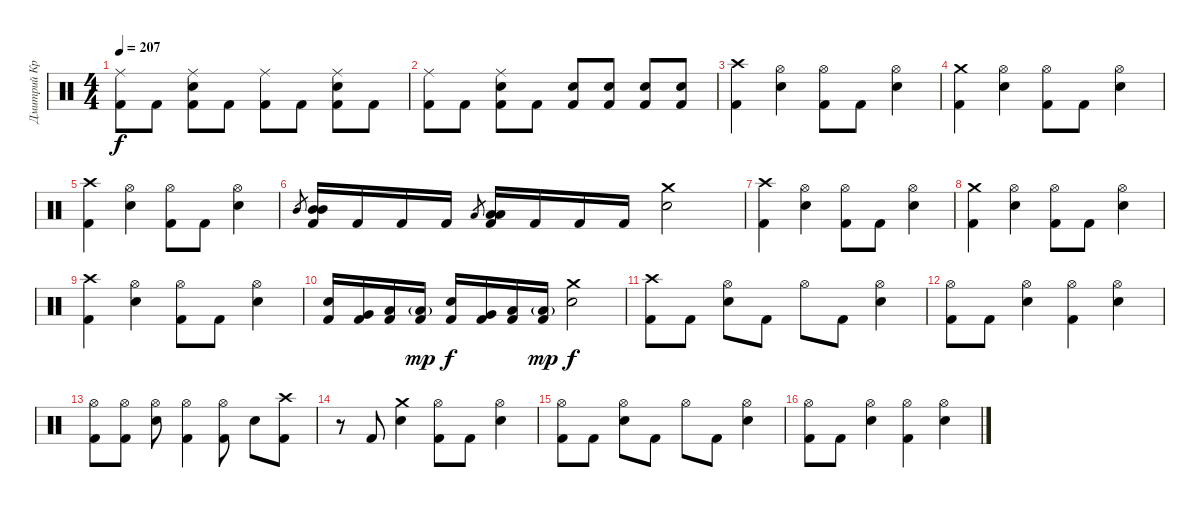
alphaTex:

\track ("Дмитрий Кривенков" "Дмитрий Кр") {instrument percussion}
\staff {score}
\articulation defaults
\ts (4 4)
\tempo 207
\clef neutral
\ks c
("Ride (middle)" "Kick (hit) 2").8{dy f} "Kick (hit) 2".8 ("Ride (middle)" "Electric Snare (hit)" "Kick (hit) 2").8 "Kick (hit) 2".8 ("Ride (middle)" "Kick (hit) 2").8 "Kick (hit) 2".8 ("Ride (middle)" "Electric Snare (hit)" "Kick (hit) 2").8 "Kick (hit) 2".8 |
("Ride (middle)" "Kick (hit) 2").8 "Kick (hit) 2".8 ("Ride (middle)" "Electric Snare (hit)" "Kick (hit) 2").8 "Kick (hit) 2".8 ("Electric Snare (hit)" "Kick (hit) 2").8 ("Electric Snare (hit)" "Kick (hit) 2").8 ("Electric Snare (hit)" "Kick (hit) 2").8 ("Electric Snare (hit)" "Kick (hit) 2").8 |
("Crash high (hit)" "Kick (hit) 2").4 ("Hi-Hat (open)" "Electric Snare (hit)").4 ("Hi-Hat (open)" "Kick (hit) 2").8 "Kick (hit) 2".8 ("Hi-Hat (open)" "Electric Snare (hit)").4 |
("Crash medium (hit)" "Kick (hit) 2").4 ("Hi-Hat (open)" "Electric Snare (hit)").4 ("Hi-Hat (open)" "Kick (hit) 2").8 "Kick (hit) 2".8 ("Hi-Hat (open)" "Electric Snare (hit)").4 |
("Crash high (hit)" "Kick (hit) 2").4 ("Hi-Hat (open)" "Electric Snare (hit)").4 ("Hi-Hat (open)" "Kick (hit) 2").8 "Kick (hit) 2".8 ("Hi-Hat (open)" "Electric Snare (hit)").4 |
"Mid Tom (hit)".8{gr} ("Mid Tom (hit)" "Mid Tom (hit)" "Kick (hit) 2").16 "Kick (hit) 2".16 "Kick (hit) 2".16 "Kick (hit) 2".16 "Low Tom (hit)".8{gr} ("Low Tom (hit)" "Low Tom (hit)" "Kick (hit) 2").16 "Kick (hit) 2".16 "Kick (hit) 2".16 "Kick (hit) 2".16 ("Crash medium (hit)" "Electric Snare (hit)").2 |
("Crash high (hit)" "Kick (hit) 2").4 ("Hi-Hat (open)" "Electric Snare (hit)").4 ("Hi-Hat (open)" "Kick (hit) 2").8 "Kick (hit) 2".8 ("Hi-Hat (open)" "Electric Snare (hit)").4 |
("Crash medium (hit)" "Kick (hit) 2").4 ("Hi-Hat (open)" "Electric Snare (hit)").4 ("Hi-Hat (open)" "Kick (hit) 2").8 "Kick (hit) 2".8 ("Hi-Hat (open)" "Electric Snare (hit)").4 |
("Crash high (hit)" "Kick (hit) 2").4 ("Hi-Hat (open)" "Electric Snare (hit)").4 ("Hi-Hat (open)" "Kick (hit) 2").8 "Kick (hit) 2".8 ("Hi-Hat (open)" "Electric Snare (hit)").4 |
("Electric Snare (hit)" "Kick (hit) 2").16 ("Very Low Tom (hit)" "Kick (hit) 2").16 ("Low Floor Tom (hit)" "Kick (hit) 2").16 ("Low Floor Tom (hit)"{g} "Kick (hit) 2").16{dy mp} ("Electric Snare (hit)" "Kick (hit) 2").16{dy f} ("Very Low Tom (hit)" "Kick (hit) 2").16 ("Low Floor Tom (hit)" "Kick (hit) 2").16 ("Low Floor Tom (hit)"{g} "Kick (hit) 2").16{dy mp} ("Crash medium (hit)" "Electric Snare (hit)").2{dy f} |
("Crash high (hit)" "Kick (hit) 2").8 "Kick (hit) 2".8 ("Hi-Hat (open)" "Electric Snare (hit)").8 "Kick (hit) 2".8 "Hi-Hat (open)".8 "Kick (hit) 2".8 ("Hi-Hat (open)" "Electric Snare (hit)").4 |
("Hi-Hat (open)" "Kick (hit) 2").8 "Kick (hit) 2".8 ("Hi-Hat (open)" "Electric Snare (hit)").4 ("Hi-Hat (open)" "Kick (hit) 2").4 ("Hi-Hat (open)" "Electric Snare (hit)").4 |
("Hi-Hat (open)" "Kick (hit) 2").8 ("Hi-Hat (open)" "Kick (hit) 2").8 ("Hi-Hat (open)" "Electric Snare (hit)").8 ("Hi-Hat (open)" "Kick (hit) 2").4 ("Hi-Hat (open)" "Kick (hit) 2").8 "Electric Snare (hit)".8 ("Crash high (hit)" "Kick (hit) 2").8 |
r.8 "Kick (hit) 2".8 ("Crash medium (hit)" "Electric Snare (hit)").4 ("Hi-Hat (open)" "Kick (hit) 2").8 "Kick (hit) 2".8 ("Hi-Hat (open)" "Electric Snare (hit)").4 |
("Hi-Hat (open)" "Kick (hit) 2").8 "Kick (hit) 2".8 ("Hi-Hat (open)" "Electric Snare (hit)").8 "Kick (hit) 2".8 "Hi-Hat (open)".8 "Kick (hit) 2".8 ("Hi-Hat (open)" "Electric Snare (hit)").4 |
("Hi-Hat (open)" "Kick (hit) 2").8 "Kick (hit) 2".8 ("Hi-Hat (open)" "Electric Snare (hit)").4 ("Hi-Hat (open)" "Kick (hit) 2").4 ("Hi-Hat (open)" "Electric Snare (hit)").4
